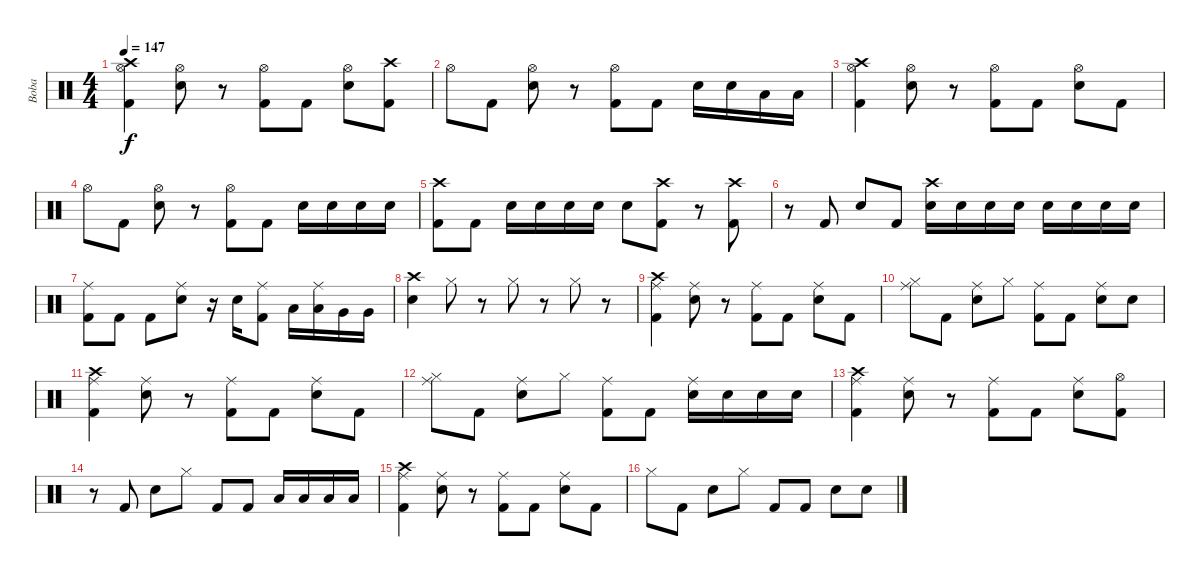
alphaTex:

\track ("Boba" "Boba") {instrument percussion}
\staff {score}
\articulation defaults
\ts (4 4)
\tempo 147
\clef neutral
\ks c
("Crash high (hit)" "Hi-Hat (open)" "Kick (hit) 2").4{dy f} ("Hi-Hat (open)" "Electric Snare (hit)").8 r.8 ("Hi-Hat (open)" "Kick (hit) 2").8 "Kick (hit) 2".8 ("Hi-Hat (open)" "Electric Snare (hit)").8 ("Crash high (hit)" "Kick (hit) 2").8 |
"Hi-Hat (open)".8 "Kick (hit) 2".8 ("Hi-Hat (open)" "Electric Snare (hit)").8 r.8 ("Hi-Hat (open)" "Kick (hit) 2").8 "Kick (hit) 2".8 "Electric Snare (hit)".16 "Electric Snare (hit)".16 "Low Tom (hit)".16 "Low Tom (hit)".16 |
("Crash high (hit)" "Hi-Hat (open)" "Kick (hit) 2").4 ("Hi-Hat (open)" "Electric Snare (hit)").8 r.8 ("Hi-Hat (open)" "Kick (hit) 2").8 "Kick (hit) 2".8 ("Hi-Hat (open)" "Electric Snare (hit)").8 "Kick (hit) 2".8 |
"Hi-Hat (open)".8 "Kick (hit) 2".8 ("Hi-Hat (open)" "Electric Snare (hit)").8 r.8 ("Hi-Hat (open)" "Kick (hit) 2").8 "Kick (hit) 2".8 "Electric Snare (hit)".16 "Electric Snare (hit)".16 "Electric Snare (hit)".16 "Electric Snare (hit)".16 |
("Crash high (hit)" "Kick (hit) 2").8 "Kick (hit) 2".8 "Electric Snare (hit)".16 "Electric Snare (hit)".16 "Electric Snare (hit)".16 "Electric Snare (hit)".16 "Electric Snare (hit)".8 ("Crash high (hit)" "Kick (hit) 2").8 r.8 ("Crash high (hit)" "Kick (hit) 2").8 |
r.8 "Kick (hit) 2".8 "Electric Snare (hit)".8 "Kick (hit) 2".8 ("Crash high (hit)" "Electric Snare (hit)").16 "Electric Snare (hit)".16 "Electric Snare (hit)".16 "Electric Snare (hit)".16 "Electric Snare (hit)".16 "Electric Snare (hit)".16 "Electric Snare (hit)".16 "Electric Snare (hit)".16 |
("Ride (middle)" "Kick (hit) 2").8 "Kick (hit) 2".8 "Kick (hit) 2".8 ("Ride (middle)" "Electric Snare (hit)").8 r.16 "Electric Snare (hit)".16 ("Ride (middle)" "Kick (hit) 2").8 "Low Tom (hit)".16 ("Ride (middle)" "Low Tom (hit)").16 "Very Low Tom (hit)".16 "Very Low Tom (hit)".16 |
("Crash high (hit)" "Electric Snare (hit)").4 "Hi-Hat (closed)".8 r.8 "Hi-Hat (closed)".8 r.8 "Hi-Hat (closed)".8 r.8 |
("Ride (middle)" "Crash high (hit)" "Kick (hit) 2").4 ("Ride (middle)" "Electric Snare (hit)").8 r.8 ("Ride (middle)" "Kick (hit) 2").8 "Kick (hit) 2".8 ("Ride (middle)" "Electric Snare (hit)").8 "Kick (hit) 2".8 |
("Ride (middle)" "Hi-Hat (closed)").8 "Kick (hit) 2".8 ("Ride (middle)" "Electric Snare (hit)").8 "Hi-Hat (closed)".8 ("Ride (middle)" "Kick (hit) 2").8 "Kick (hit) 2".8 ("Ride (middle)" "Electric Snare (hit)").8 "Electric Snare (hit)".8 |
("Ride (middle)" "Crash high (hit)" "Kick (hit) 2").4 ("Ride (middle)" "Electric Snare (hit)").8 r.8 ("Ride (middle)" "Kick (hit) 2").8 "Kick (hit) 2".8 ("Ride (middle)" "Electric Snare (hit)").8 "Kick (hit) 2".8 |
("Ride (middle)" "Hi-Hat (closed)").8 "Kick (hit) 2".8 ("Ride (middle)" "Electric Snare (hit)").8 "Hi-Hat (closed)".8 ("Ride (middle)" "Kick (hit) 2").8 "Kick (hit) 2".8 ("Ride (middle)" "Electric Snare (hit)").16 "Electric Snare (hit)".16 "Electric Snare (hit)".16 "Electric Snare (hit)".16 |
("Ride (middle)" "Crash high (hit)" "Kick (hit) 2").4 ("Ride (middle)" "Electric Snare (hit)").8 r.8 ("Ride (middle)" "Kick (hit) 2").8 "Kick (hit) 2".8 ("Ride (middle)" "Electric Snare (hit)").8 ("Hi-Hat (open)" "Kick (hit) 2").8 |
r.8 "Kick (hit) 2".8 "Electric Snare (hit)".8 "Hi-Hat (closed)".8 "Kick (hit) 2".8 "Kick (hit) 2".8 "Low Tom (hit)".16 "Low Tom (hit)".16 "Low Tom (hit)".16 "Low Tom (hit)".16 |
("Ride (middle)" "Crash high (hit)" "Kick (hit) 2").4 ("Ride (middle)" "Electric Snare (hit)").8 r.8 ("Ride (middle)" "Kick (hit) 2").8 "Kick (hit) 2".8 ("Ride (middle)" "Electric Snare (hit)").8 "Kick (hit) 2".8 |
"Hi-Hat (closed)".8 "Kick (hit) 2".8 "Electric Snare (hit)".8 "Hi-Hat (closed)".8 "Kick (hit) 2".8 "Kick (hit) 2".8 "Electric Snare (hit)".8 "Electric Snare (hit)".8
